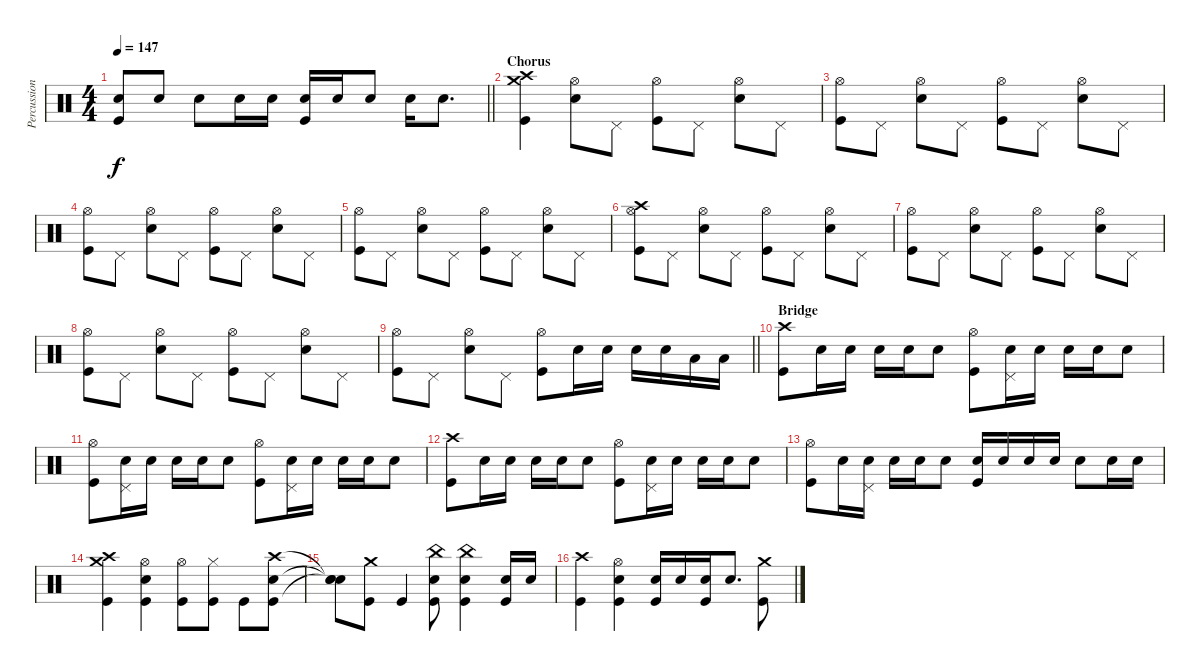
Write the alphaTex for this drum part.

\track ("Percussion" "Percussion") {instrument percussion}
\staff {score}
\articulation defaults
\ts (4 4)
\tempo 147
\clef neutral
\barLineRight lightlight
\ks c
("Electric Snare (hit)" "Kick (hit)").8{dy f} "Electric Snare (hit)".8 "Electric Snare (hit)".8 "Electric Snare (hit)".16 "Electric Snare (hit)".16 ("Electric Snare (hit)" "Kick (hit)").16 "Electric Snare (hit)".16 "Electric Snare (hit)".8 "Electric Snare (hit)".16 "Electric Snare (hit)".8{d} |
\section ("" "Chorus")
("Crash high (hit)" "Crash medium (hit)" "Kick (hit)").4 ("Hi-Hat (open)" "Electric Snare (hit)").8 "Pedal Hi-Hat (hit)".8 ("Hi-Hat (open)" "Kick (hit)").8 "Pedal Hi-Hat (hit)".8 ("Hi-Hat (open)" "Electric Snare (hit)").8 "Pedal Hi-Hat (hit)".8 |
("Hi-Hat (open)" "Kick (hit)").8 "Pedal Hi-Hat (hit)".8 ("Hi-Hat (open)" "Electric Snare (hit)").8 "Pedal Hi-Hat (hit)".8 ("Hi-Hat (open)" "Kick (hit)").8 "Pedal Hi-Hat (hit)".8 ("Hi-Hat (open)" "Electric Snare (hit)").8 "Pedal Hi-Hat (hit)".8 |
("Hi-Hat (open)" "Kick (hit)").8 "Pedal Hi-Hat (hit)".8 ("Hi-Hat (open)" "Electric Snare (hit)").8 "Pedal Hi-Hat (hit)".8 ("Hi-Hat (open)" "Kick (hit)").8 "Pedal Hi-Hat (hit)".8 ("Hi-Hat (open)" "Electric Snare (hit)").8 "Pedal Hi-Hat (hit)".8 |
("Hi-Hat (open)" "Kick (hit)").8 "Pedal Hi-Hat (hit)".8 ("Hi-Hat (open)" "Electric Snare (hit)").8 "Pedal Hi-Hat (hit)".8 ("Hi-Hat (open)" "Kick (hit)").8 "Pedal Hi-Hat (hit)".8 ("Hi-Hat (open)" "Electric Snare (hit)").8 "Pedal Hi-Hat (hit)".8 |
("Crash high (hit)" "Hi-Hat (open)" "Kick (hit)").8 "Pedal Hi-Hat (hit)".8 ("Hi-Hat (open)" "Electric Snare (hit)").8 "Pedal Hi-Hat (hit)".8 ("Hi-Hat (open)" "Kick (hit)").8 "Pedal Hi-Hat (hit)".8 ("Hi-Hat (open)" "Electric Snare (hit)").8 "Pedal Hi-Hat (hit)".8 |
("Hi-Hat (open)" "Kick (hit)").8 "Pedal Hi-Hat (hit)".8 ("Hi-Hat (open)" "Electric Snare (hit)").8 "Pedal Hi-Hat (hit)".8 ("Hi-Hat (open)" "Kick (hit)").8 "Pedal Hi-Hat (hit)".8 ("Hi-Hat (open)" "Electric Snare (hit)").8 "Pedal Hi-Hat (hit)".8 |
("Hi-Hat (open)" "Kick (hit)").8 "Pedal Hi-Hat (hit)".8 ("Hi-Hat (open)" "Electric Snare (hit)").8 "Pedal Hi-Hat (hit)".8 ("Hi-Hat (open)" "Kick (hit)").8 "Pedal Hi-Hat (hit)".8 ("Hi-Hat (open)" "Electric Snare (hit)").8 "Pedal Hi-Hat (hit)".8 |
\barLineRight lightlight
("Hi-Hat (open)" "Kick (hit)").8 "Pedal Hi-Hat (hit)".8 ("Hi-Hat (open)" "Electric Snare (hit)").8 "Pedal Hi-Hat (hit)".8 ("Hi-Hat (open)" "Kick (hit)").8 "Electric Snare (hit)".16 "Electric Snare (hit)".16 "Electric Snare (hit)".16 "Electric Snare (hit)".16 "Low Floor Tom (hit)".16 "Low Floor Tom (hit)".16 |
\section ("" "Bridge")
("Crash high (hit)" "Kick (hit)").8 "Electric Snare (hit)".16 "Electric Snare (hit)".16 "Electric Snare (hit)".16 "Electric Snare (hit)".16 "Electric Snare (hit)".8 ("Hi-Hat (open)" "Kick (hit)").8 ("Pedal Hi-Hat (hit)" "Electric Snare (hit)").16 "Electric Snare (hit)".16 "Electric Snare (hit)".16 "Electric Snare (hit)".16 "Electric Snare (hit)".8 |
("Hi-Hat (open)" "Kick (hit)").8 ("Pedal Hi-Hat (hit)" "Electric Snare (hit)").16 "Electric Snare (hit)".16 "Electric Snare (hit)".16 "Electric Snare (hit)".16 "Electric Snare (hit)".8 ("Hi-Hat (open)" "Kick (hit)").8 ("Pedal Hi-Hat (hit)" "Electric Snare (hit)").16 "Electric Snare (hit)".16 "Electric Snare (hit)".16 "Electric Snare (hit)".16 "Electric Snare (hit)".8 |
("Crash high (hit)" "Kick (hit)").8 "Electric Snare (hit)".16 "Electric Snare (hit)".16 "Electric Snare (hit)".16 "Electric Snare (hit)".16 "Electric Snare (hit)".8 ("Hi-Hat (open)" "Kick (hit)").8 ("Pedal Hi-Hat (hit)" "Electric Snare (hit)").16 "Electric Snare (hit)".16 "Electric Snare (hit)".16 "Electric Snare (hit)".16 "Electric Snare (hit)".8 |
("Hi-Hat (open)" "Kick (hit)").8 "Electric Snare (hit)".16 ("Pedal Hi-Hat (hit)" "Electric Snare (hit)").16 "Electric Snare (hit)".16 "Electric Snare (hit)".16 "Electric Snare (hit)".8 ("Electric Snare (hit)" "Kick (hit)").16 "Electric Snare (hit)".16 "Electric Snare (hit)".16 "Electric Snare (hit)".16 "Electric Snare (hit)".8 "Electric Snare (hit)".16 "Electric Snare (hit)".16 |
("Crash high (hit)" "Crash medium (hit)" "Kick (hit)").4 ("Hi-Hat (open)" "Electric Snare (hit)" "Kick (hit)").4 ("Hi-Hat (open)" "Kick (hit)").8 ("Hi-Hat (closed)" "Kick (hit)").8 "Kick (hit)".8 ("Crash high (hit)" "Electric Snare (hit)" "Kick (hit)").8 |
("Snare (hit)"{t} "Snare (hit)"{t} "Snare (hit)"{t}).8 ("Crash medium (hit)" "Kick (hit)").8 "Kick (hit)".4 ("China (hit)" "Electric Snare (hit)" "Kick (hit)").8 ("China (hit)" "Electric Snare (hit)" "Kick (hit)").4 ("Electric Snare (hit)" "Kick (hit)").16 "Electric Snare (hit)".16 |
("Crash high (hit)" "Kick (hit)").4 ("Hi-Hat (open)" "Electric Snare (hit)" "Kick (hit)").4 ("Electric Snare (hit)" "Kick (hit)").16 "Electric Snare (hit)".16 ("Electric Snare (hit)" "Kick (hit)").16 "Electric Snare (hit)".8{d} ("Crash medium (hit)" "Kick (hit)").8
